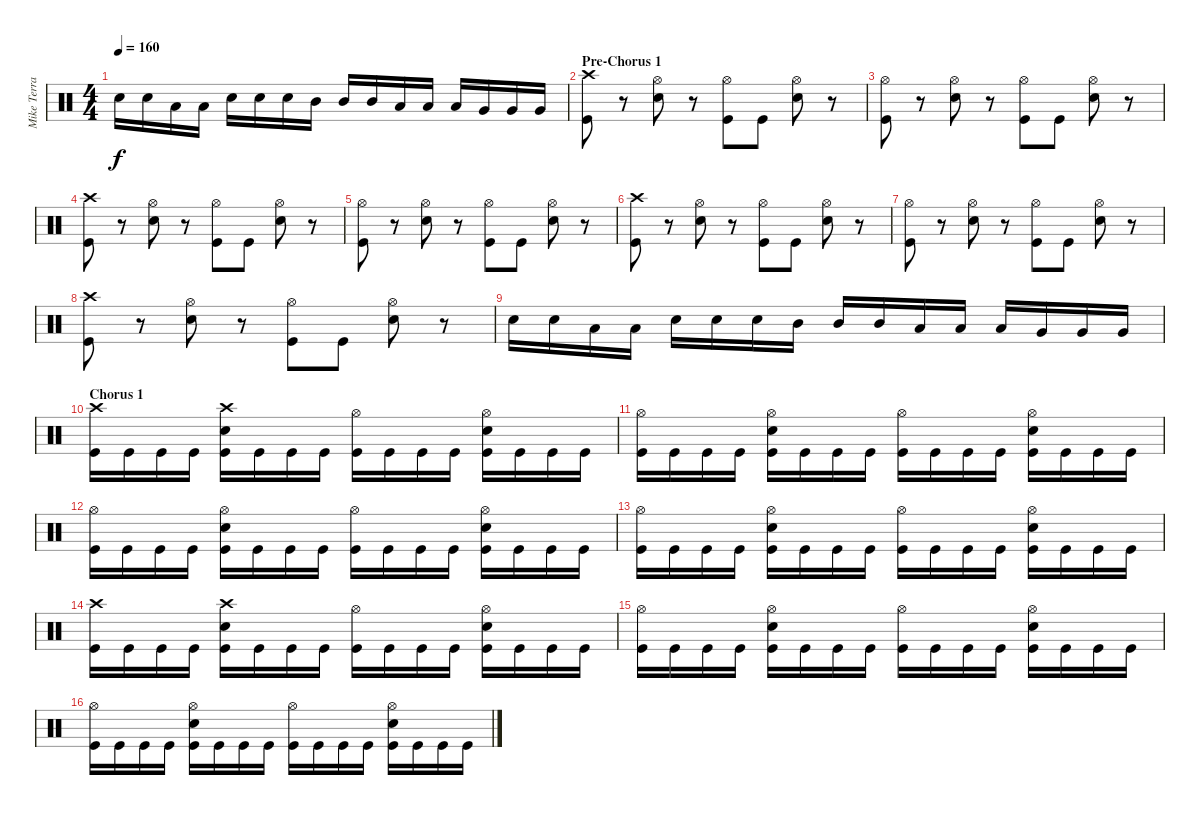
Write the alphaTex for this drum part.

\track ("Mike Terrana - Drums" "Mike Terra") {instrument percussion}
\staff {score}
\articulation defaults
\ts (4 4)
\tempo 160
\clef neutral
\ks c "Electric Snare (hit)".16{dy f} "Electric Snare (hit)".16 "Low Tom (hit)".16 "Low Tom (hit)".16 "Electric Snare (hit)".16 "Electric Snare (hit)".16 "Electric Snare (hit)".16 "Mid Tom (hit)".16 "Mid Tom (hit)".16 "Mid Tom (hit)".16 "Low Tom (hit)".16 "Low Tom (hit)".16 "Low Tom (hit)".16 "Very Low Tom (hit)".16 "Very Low Tom (hit)".16 "Very Low Tom (hit)".16
|
\section ("" "Pre-Chorus 1")
("Kick (hit)" "Crash high (hit)").8 r.8 ("Electric Snare (hit)" "Hi-Hat (open)").8 r.8 ("Kick (hit)" "Hi-Hat (open)").8 "Kick (hit)".8 ("Electric Snare (hit)" "Hi-Hat (open)").8 r.8 |
("Kick (hit)" "Hi-Hat (open)").8 r.8 ("Electric Snare (hit)" "Hi-Hat (open)").8 r.8 ("Kick (hit)" "Hi-Hat (open)").8 "Kick (hit)".8 ("Electric Snare (hit)" "Hi-Hat (open)").8 r.8 |
("Kick (hit)" "Crash high (hit)").8 r.8 ("Electric Snare (hit)" "Hi-Hat (open)").8 r.8 ("Kick (hit)" "Hi-Hat (open)").8 "Kick (hit)".8 ("Electric Snare (hit)" "Hi-Hat (open)").8 r.8 |
("Kick (hit)" "Hi-Hat (open)").8 r.8 ("Electric Snare (hit)" "Hi-Hat (open)").8 r.8 ("Kick (hit)" "Hi-Hat (open)").8 "Kick (hit)".8 ("Electric Snare (hit)" "Hi-Hat (open)").8 r.8 |
("Kick (hit)" "Crash high (hit)").8 r.8 ("Electric Snare (hit)" "Hi-Hat (open)").8 r.8 ("Kick (hit)" "Hi-Hat (open)").8 "Kick (hit)".8 ("Electric Snare (hit)" "Hi-Hat (open)").8 r.8 |
("Kick (hit)" "Hi-Hat (open)").8 r.8 ("Electric Snare (hit)" "Hi-Hat (open)").8 r.8 ("Kick (hit)" "Hi-Hat (open)").8 "Kick (hit)".8 ("Electric Snare (hit)" "Hi-Hat (open)").8 r.8 |
("Kick (hit)" "Crash high (hit)").8 r.8 ("Electric Snare (hit)" "Hi-Hat (open)").8 r.8 ("Kick (hit)" "Hi-Hat (open)").8 "Kick (hit)".8 ("Electric Snare (hit)" "Hi-Hat (open)").8 r.8 |
"Electric Snare (hit)".16 "Electric Snare (hit)".16 "Low Tom (hit)".16 "Low Tom (hit)".16 "Electric Snare (hit)".16 "Electric Snare (hit)".16 "Electric Snare (hit)".16 "Mid Tom (hit)".16 "Mid Tom (hit)".16 "Mid Tom (hit)".16 "Low Tom (hit)".16 "Low Tom (hit)".16 "Low Tom (hit)".16 "Very Low Tom (hit)".16 "Very Low Tom (hit)".16 "Very Low Tom (hit)".16 |
\section ("" "Chorus 1")
("Kick (hit)" "Crash high (hit)").16 "Kick (hit)".16 "Kick (hit)".16 "Kick (hit)".16 ("Kick (hit)" "Electric Snare (hit)" "Crash high (hit)").16 "Kick (hit)".16 "Kick (hit)".16 "Kick (hit)".16 ("Kick (hit)" "Hi-Hat (open)").16 "Kick (hit)".16 "Kick (hit)".16 "Kick (hit)".16 ("Kick (hit)" "Electric Snare (hit)" "Hi-Hat (open)").16 "Kick (hit)".16 "Kick (hit)".16 "Kick (hit)".16 |
("Kick (hit)" "Hi-Hat (open)").16 "Kick (hit)".16 "Kick (hit)".16 "Kick (hit)".16 ("Kick (hit)" "Electric Snare (hit)" "Hi-Hat (open)").16 "Kick (hit)".16 "Kick (hit)".16 "Kick (hit)".16 ("Kick (hit)" "Hi-Hat (open)").16 "Kick (hit)".16 "Kick (hit)".16 "Kick (hit)".16 ("Kick (hit)" "Electric Snare (hit)" "Hi-Hat (open)").16 "Kick (hit)".16 "Kick (hit)".16 "Kick (hit)".16 |
("Kick (hit)" "Hi-Hat (open)").16 "Kick (hit)".16 "Kick (hit)".16 "Kick (hit)".16 ("Kick (hit)" "Electric Snare (hit)" "Hi-Hat (open)").16 "Kick (hit)".16 "Kick (hit)".16 "Kick (hit)".16 ("Kick (hit)" "Hi-Hat (open)").16 "Kick (hit)".16 "Kick (hit)".16 "Kick (hit)".16 ("Kick (hit)" "Electric Snare (hit)" "Hi-Hat (open)").16 "Kick (hit)".16 "Kick (hit)".16 "Kick (hit)".16 |
("Kick (hit)" "Hi-Hat (open)").16 "Kick (hit)".16 "Kick (hit)".16 "Kick (hit)".16 ("Kick (hit)" "Electric Snare (hit)" "Hi-Hat (open)").16 "Kick (hit)".16 "Kick (hit)".16 "Kick (hit)".16 ("Kick (hit)" "Hi-Hat (open)").16 "Kick (hit)".16 "Kick (hit)".16 "Kick (hit)".16 ("Kick (hit)" "Electric Snare (hit)" "Hi-Hat (open)").16 "Kick (hit)".16 "Kick (hit)".16 "Kick (hit)".16 |
("Kick (hit)" "Crash high (hit)").16 "Kick (hit)".16 "Kick (hit)".16 "Kick (hit)".16 ("Kick (hit)" "Electric Snare (hit)" "Crash high (hit)").16 "Kick (hit)".16 "Kick (hit)".16 "Kick (hit)".16 ("Kick (hit)" "Hi-Hat (open)").16 "Kick (hit)".16 "Kick (hit)".16 "Kick (hit)".16 ("Kick (hit)" "Electric Snare (hit)" "Hi-Hat (open)").16 "Kick (hit)".16 "Kick (hit)".16 "Kick (hit)".16 |
("Kick (hit)" "Hi-Hat (open)").16 "Kick (hit)".16 "Kick (hit)".16 "Kick (hit)".16 ("Kick (hit)" "Electric Snare (hit)" "Hi-Hat (open)").16 "Kick (hit)".16 "Kick (hit)".16 "Kick (hit)".16 ("Kick (hit)" "Hi-Hat (open)").16 "Kick (hit)".16 "Kick (hit)".16 "Kick (hit)".16 ("Kick (hit)" "Electric Snare (hit)" "Hi-Hat (open)").16 "Kick (hit)".16 "Kick (hit)".16 "Kick (hit)".16 |
("Kick (hit)" "Hi-Hat (open)").16 "Kick (hit)".16 "Kick (hit)".16 "Kick (hit)".16 ("Kick (hit)" "Electric Snare (hit)" "Hi-Hat (open)").16 "Kick (hit)".16 "Kick (hit)".16 "Kick (hit)".16 ("Kick (hit)" "Hi-Hat (open)").16 "Kick (hit)".16 "Kick (hit)".16 "Kick (hit)".16 ("Kick (hit)" "Electric Snare (hit)" "Hi-Hat (open)").16 "Kick (hit)".16 "Kick (hit)".16 "Kick (hit)".16
